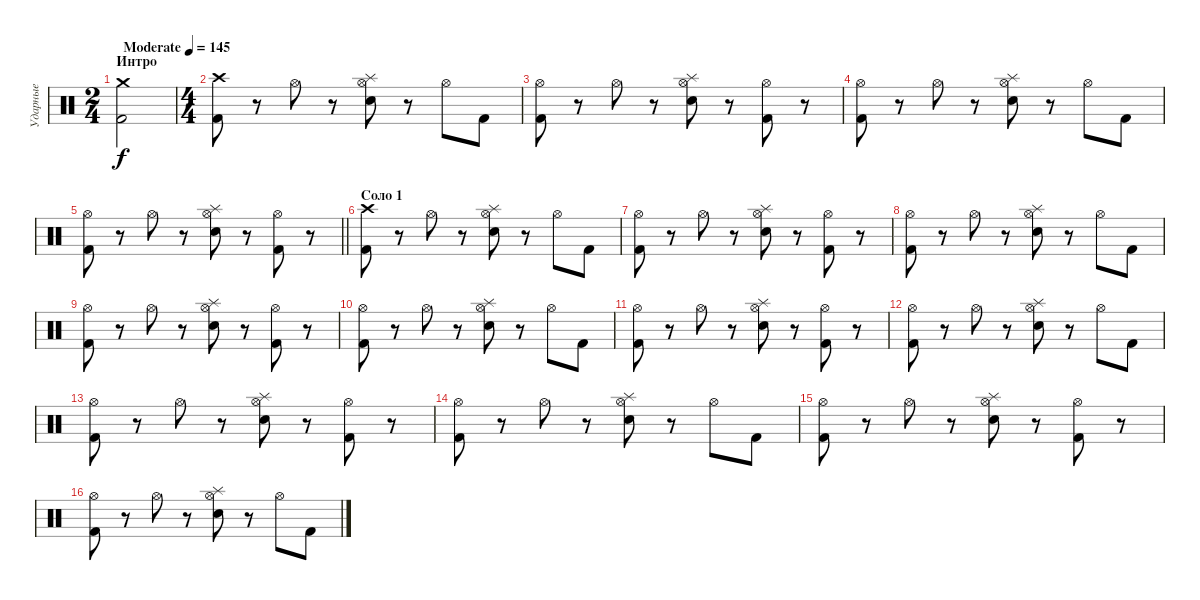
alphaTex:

\track ("Ударные" "Ударные") {instrument percussion}
\staff {score}
\articulation defaults
\ts (2 4)
\section ("" "Интро")
\tempo (145 "Moderate")
\clef neutral
\ks c
("Crash medium (hit)" "Kick (hit) 2").2{dy f} |
\ts (4 4)
("Crash high (hit)" "Kick (hit) 2").8 r.8 "Hi-Hat (open)".8 r.8 ("Splash (hit)" "Hi-Hat (open)" "Snare (hit) 2").8 r.8 "Hi-Hat (open)".8 "Kick (hit) 2".8 |
("Hi-Hat (open)" "Kick (hit) 2").8 r.8 "Hi-Hat (open)".8 r.8 ("Splash (hit)" "Hi-Hat (open)" "Snare (hit) 2").8 r.8 ("Hi-Hat (open)" "Kick (hit) 2").8 r.8 |
("Hi-Hat (open)" "Kick (hit) 2").8 r.8 "Hi-Hat (open)".8 r.8 ("Splash (hit)" "Hi-Hat (open)" "Snare (hit) 2").8 r.8 "Hi-Hat (open)".8 "Kick (hit) 2".8 |
\barLineRight lightlight
("Hi-Hat (open)" "Kick (hit) 2").8 r.8 "Hi-Hat (open)".8 r.8 ("Splash (hit)" "Hi-Hat (open)" "Snare (hit) 2").8 r.8 ("Hi-Hat (open)" "Kick (hit) 2").8 r.8 |
\section ("" "Соло 1")
("Crash high (hit)" "Kick (hit) 2").8 r.8 "Hi-Hat (open)".8 r.8 ("Splash (hit)" "Hi-Hat (open)" "Snare (hit) 2").8 r.8 "Hi-Hat (open)".8 "Kick (hit) 2".8 |
("Hi-Hat (open)" "Kick (hit) 2").8 r.8 "Hi-Hat (open)".8 r.8 ("Splash (hit)" "Hi-Hat (open)" "Snare (hit) 2").8 r.8 ("Hi-Hat (open)" "Kick (hit) 2").8 r.8 |
("Hi-Hat (open)" "Kick (hit) 2").8 r.8 "Hi-Hat (open)".8 r.8 ("Splash (hit)" "Hi-Hat (open)" "Snare (hit) 2").8 r.8 "Hi-Hat (open)".8 "Kick (hit) 2".8 |
("Hi-Hat (open)" "Kick (hit) 2").8 r.8 "Hi-Hat (open)".8 r.8 ("Splash (hit)" "Hi-Hat (open)" "Snare (hit) 2").8 r.8 ("Hi-Hat (open)" "Kick (hit) 2").8 r.8 |
("Hi-Hat (open)" "Kick (hit) 2").8 r.8 "Hi-Hat (open)".8 r.8 ("Splash (hit)" "Hi-Hat (open)" "Snare (hit) 2").8 r.8 "Hi-Hat (open)".8 "Kick (hit) 2".8 |
("Hi-Hat (open)" "Kick (hit) 2").8 r.8 "Hi-Hat (open)".8 r.8 ("Splash (hit)" "Hi-Hat (open)" "Snare (hit) 2").8 r.8 ("Hi-Hat (open)" "Kick (hit) 2").8 r.8 |
("Hi-Hat (open)" "Kick (hit) 2").8 r.8 "Hi-Hat (open)".8 r.8 ("Splash (hit)" "Hi-Hat (open)" "Snare (hit) 2").8 r.8 "Hi-Hat (open)".8 "Kick (hit) 2".8 |
("Hi-Hat (open)" "Kick (hit) 2").8 r.8 "Hi-Hat (open)".8 r.8 ("Splash (hit)" "Hi-Hat (open)" "Snare (hit) 2").8 r.8 ("Hi-Hat (open)" "Kick (hit) 2").8 r.8 |
("Hi-Hat (open)" "Kick (hit) 2").8 r.8 "Hi-Hat (open)".8 r.8 ("Splash (hit)" "Hi-Hat (open)" "Snare (hit) 2").8 r.8 "Hi-Hat (open)".8 "Kick (hit) 2".8 |
("Hi-Hat (open)" "Kick (hit) 2").8 r.8 "Hi-Hat (open)".8 r.8 ("Splash (hit)" "Hi-Hat (open)" "Snare (hit) 2").8 r.8 ("Hi-Hat (open)" "Kick (hit) 2").8 r.8 |
("Hi-Hat (open)" "Kick (hit) 2").8 r.8 "Hi-Hat (open)".8 r.8 ("Splash (hit)" "Hi-Hat (open)" "Snare (hit) 2").8 r.8 "Hi-Hat (open)".8 "Kick (hit) 2".8
